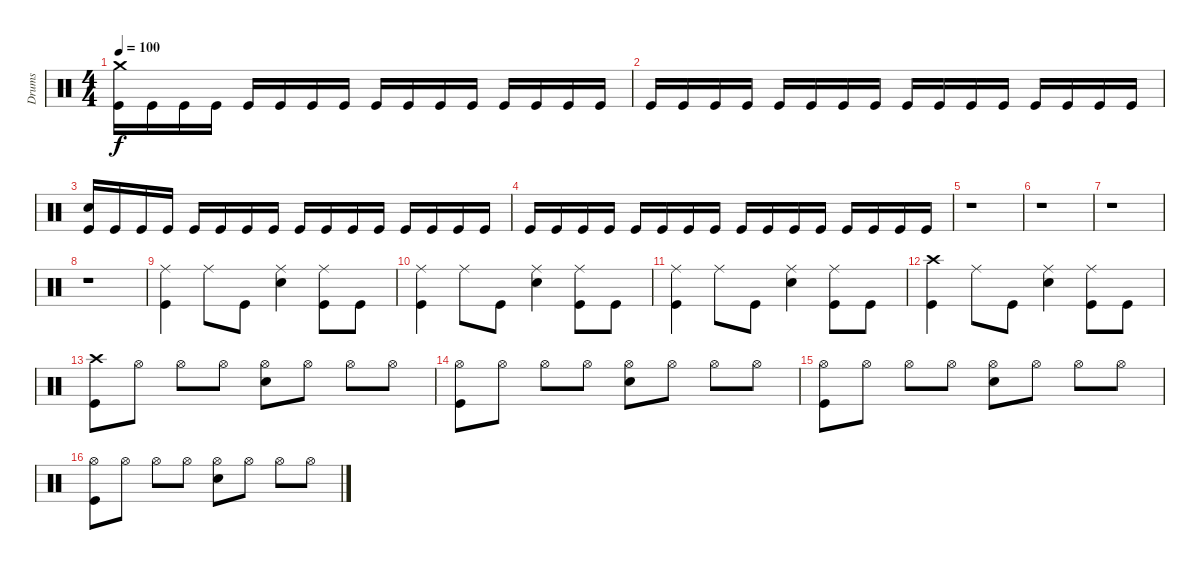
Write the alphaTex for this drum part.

\track ("Drums" "Drums") {instrument percussion}
\staff {score}
\articulation defaults
\ts (4 4)
\tempo 100
\clef neutral
\ks c
("Crash medium (hit)" "Kick (hit)").16{dy f} "Kick (hit)".16 "Kick (hit)".16 "Kick (hit)".16 "Kick (hit)".16 "Kick (hit)".16 "Kick (hit)".16 "Kick (hit)".16 "Kick (hit)".16 "Kick (hit)".16 "Kick (hit)".16 "Kick (hit)".16 "Kick (hit)".16 "Kick (hit)".16 "Kick (hit)".16 "Kick (hit)".16 |
"Kick (hit)".16 "Kick (hit)".16 "Kick (hit)".16 "Kick (hit)".16 "Kick (hit)".16 "Kick (hit)".16 "Kick (hit)".16 "Kick (hit)".16 "Kick (hit)".16 "Kick (hit)".16 "Kick (hit)".16 "Kick (hit)".16 "Kick (hit)".16 "Kick (hit)".16 "Kick (hit)".16 "Kick (hit)".16 |
("Kick (hit)" "Snare (hit) 2").16 "Kick (hit)".16 "Kick (hit)".16 "Kick (hit)".16 "Kick (hit)".16 "Kick (hit)".16 "Kick (hit)".16 "Kick (hit)".16 "Kick (hit)".16 "Kick (hit)".16 "Kick (hit)".16 "Kick (hit)".16 "Kick (hit)".16 "Kick (hit)".16 "Kick (hit)".16 "Kick (hit)".16 |
"Kick (hit)".16 "Kick (hit)".16 "Kick (hit)".16 "Kick (hit)".16 "Kick (hit)".16 "Kick (hit)".16 "Kick (hit)".16 "Kick (hit)".16 "Kick (hit)".16 "Kick (hit)".16 "Kick (hit)".16 "Kick (hit)".16 "Kick (hit)".16 "Kick (hit)".16 "Kick (hit)".16 "Kick (hit)".16 |
r.1 |
r.1 |
r.1 |
r.1 |
("Ride (middle)" "Kick (hit)").4 "Ride (middle)".8 "Kick (hit)".8 ("Ride (middle)" "Snare (hit) 2").4 ("Ride (middle)" "Kick (hit)").8 "Kick (hit)".8 |
("Ride (middle)" "Kick (hit)").4 "Ride (middle)".8 "Kick (hit)".8 ("Ride (middle)" "Snare (hit) 2").4 ("Ride (middle)" "Kick (hit)").8 "Kick (hit)".8 |
("Ride (middle)" "Kick (hit)").4 "Ride (middle)".8 "Kick (hit)".8 ("Ride (middle)" "Snare (hit) 2").4 ("Ride (middle)" "Kick (hit)").8 "Kick (hit)".8 |
("Crash high (hit)" "Kick (hit)").4 "Ride (middle)".8 "Kick (hit)".8 ("Ride (middle)" "Snare (hit) 2").4 ("Ride (middle)" "Kick (hit)").8 "Kick (hit)".8 |
("Crash high (hit)" "Kick (hit)").8 "Hi-Hat (open)".8 "Hi-Hat (open)".8 "Hi-Hat (open)".8 ("Hi-Hat (open)" "Snare (hit) 2").8 "Hi-Hat (open)".8 "Hi-Hat (open)".8 "Hi-Hat (open)".8 |
("Hi-Hat (open)" "Kick (hit)").8 "Hi-Hat (open)".8 "Hi-Hat (open)".8 "Hi-Hat (open)".8 ("Hi-Hat (open)" "Snare (hit) 2").8 "Hi-Hat (open)".8 "Hi-Hat (open)".8 "Hi-Hat (open)".8 |
("Hi-Hat (open)" "Kick (hit)").8 "Hi-Hat (open)".8 "Hi-Hat (open)".8 "Hi-Hat (open)".8 ("Hi-Hat (open)" "Snare (hit) 2").8 "Hi-Hat (open)".8 "Hi-Hat (open)".8 "Hi-Hat (open)".8 |
("Hi-Hat (open)" "Kick (hit)").8 "Hi-Hat (open)".8 "Hi-Hat (open)".8 "Hi-Hat (open)".8 ("Hi-Hat (open)" "Snare (hit) 2").8 "Hi-Hat (open)".8 "Hi-Hat (open)".8 "Hi-Hat (open)".8
